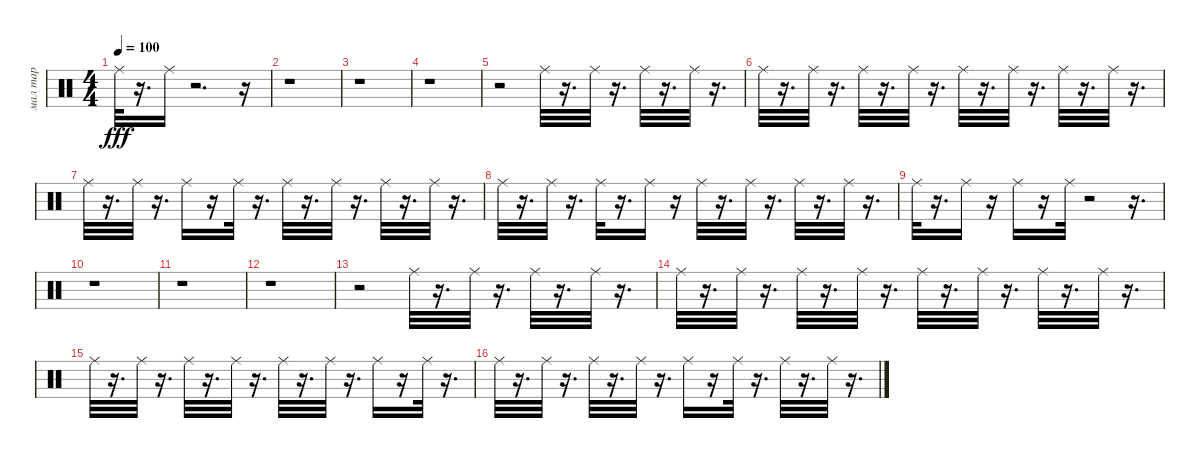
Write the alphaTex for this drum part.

\track ("мал тар" "мал тар") {instrument percussion}
\staff {score}
\articulation defaults
\ts (4 4)
\tempo 100
\clef neutral
\ks c "Ride (middle)".32{dy fff}
r.16{d} "Ride (middle)".16 r.2{d} r.16 |
r.1 |
r.1 |
r.1 |
r.2 "Ride (middle)".32 r.16{d} "Ride (middle)".32 r.16{d} "Ride (middle)".32 r.16{d} "Ride (middle)".32 r.16{d} |
"Ride (middle)".32 r.16{d} "Ride (middle)".32 r.16{d} "Ride (middle)".32 r.16{d} "Ride (middle)".32 r.16{d} "Ride (middle)".32 r.16{d} "Ride (middle)".32 r.16{d} "Ride (middle)".32 r.16{d} "Ride (middle)".32 r.16{d} |
"Ride (middle)".32 r.16{d} "Ride (middle)".32 r.16{d} "Ride (middle)".16 r.16 "Ride (middle)".32 r.16{d} "Ride (middle)".32 r.16{d} "Ride (middle)".32 r.16{d} "Ride (middle)".32 r.16{d} "Ride (middle)".32 r.16{d} |
"Ride (middle)".32 r.16{d} "Ride (middle)".32 r.16{d} "Ride (middle)".32 r.16{d} "Ride (middle)".16 r.16 "Ride (middle)".32 r.16{d} "Ride (middle)".32 r.16{d} "Ride (middle)".32 r.16{d} "Ride (middle)".32 r.16{d} |
"Ride (middle)".32 r.16{d} "Ride (middle)".16 r.16 "Ride (middle)".16 r.16 "Ride (middle)".32 r.2 r.16{d} |
r.1 |
r.1 |
r.1 |
r.2 "Ride (middle)".32 r.16{d} "Ride (middle)".32 r.16{d} "Ride (middle)".32 r.16{d} "Ride (middle)".32 r.16{d} |
"Ride (middle)".32 r.16{d} "Ride (middle)".32 r.16{d} "Ride (middle)".32 r.16{d} "Ride (middle)".32 r.16{d} "Ride (middle)".32 r.16{d} "Ride (middle)".32 r.16{d} "Ride (middle)".32 r.16{d} "Ride (middle)".32 r.16{d} |
"Ride (middle)".32 r.16{d} "Ride (middle)".32 r.16{d} "Ride (middle)".32 r.16{d} "Ride (middle)".32 r.16{d} "Ride (middle)".32 r.16{d} "Ride (middle)".32 r.16{d} "Ride (middle)".16 r.16 "Ride (middle)".32 r.16{d} |
"Ride (middle)".32 r.16{d} "Ride (middle)".32 r.16{d} "Ride (middle)".32 r.16{d} "Ride (middle)".32 r.16{d} "Ride (middle)".16 r.16 "Ride (middle)".32 r.16{d} "Ride (middle)".32 r.16{d} "Ride (middle)".32 r.16{d}
